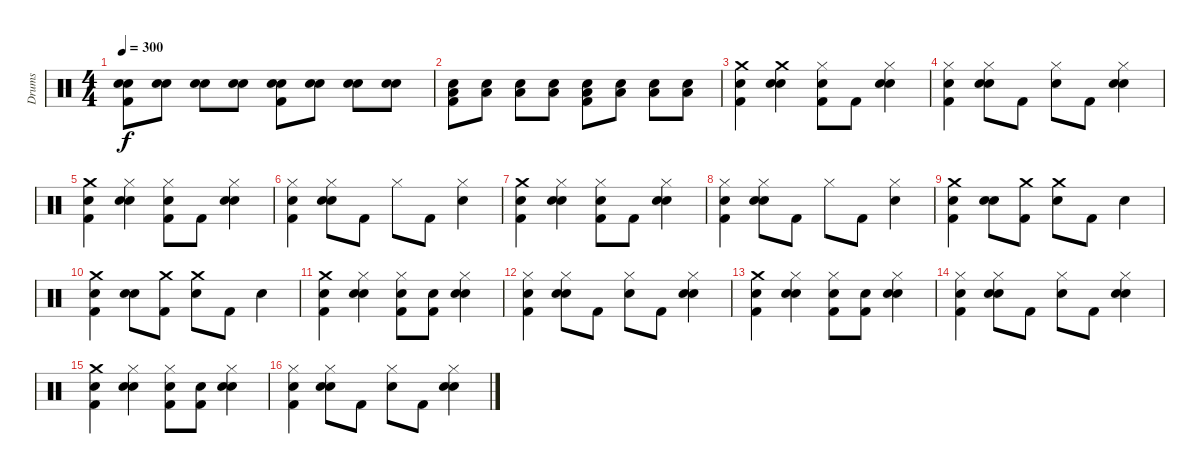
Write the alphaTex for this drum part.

\track ("Drums" "Drums") {instrument percussion}
\staff {score}
\articulation defaults
\ts (4 4)
\tempo 300
\clef neutral
\ks c
("Snare (hit)" "Kick (hit) 2" "Electric Snare (hit)").8{dy f} ("Snare (hit)" "Electric Snare (hit)").8 ("Snare (hit)" "Electric Snare (hit)").8 ("Snare (hit)" "Electric Snare (hit)").8 ("Snare (hit)" "Kick (hit) 2" "Electric Snare (hit)").8 ("Snare (hit)" "Electric Snare (hit)").8 ("Snare (hit)" "Electric Snare (hit)").8 ("Snare (hit)" "Electric Snare (hit)").8 |
("Snare (hit)" "Kick (hit) 2" "Low Floor Tom (hit)").8 ("Snare (hit)" "Low Floor Tom (hit)").8 ("Snare (hit)" "Low Floor Tom (hit)").8 ("Snare (hit)" "Low Floor Tom (hit)").8 ("Snare (hit)" "Kick (hit) 2" "Low Floor Tom (hit)").8 ("Snare (hit)" "Low Floor Tom (hit)").8 ("Snare (hit)" "Low Floor Tom (hit)").8 ("Snare (hit)" "Low Floor Tom (hit)").8 |
("Snare (hit)" "Kick (hit) 2" "Crash medium (hit)").4 ("Snare (hit)" "Crash medium (hit)" "Electric Snare (hit)").4 ("Snare (hit)" "Kick (hit) 2" "Hi-Hat (closed)").8 "Kick (hit) 2".8 ("Snare (hit)" "Hi-Hat (closed)" "Electric Snare (hit)").4 |
("Snare (hit)" "Kick (hit) 2" "Hi-Hat (closed)").4 ("Snare (hit)" "Hi-Hat (closed)" "Electric Snare (hit)").8 "Kick (hit) 2".8 ("Snare (hit)" "Hi-Hat (closed)").8 "Kick (hit) 2".8 ("Snare (hit)" "Hi-Hat (closed)" "Electric Snare (hit)").4 |
("Snare (hit)" "Crash medium (hit)" "Kick (hit) 2").4 ("Snare (hit)" "Hi-Hat (closed)" "Electric Snare (hit)").4 ("Snare (hit)" "Hi-Hat (closed)" "Kick (hit) 2").8 "Kick (hit) 2".8 ("Snare (hit)" "Hi-Hat (closed)" "Electric Snare (hit)").4 |
("Snare (hit)" "Hi-Hat (closed)" "Kick (hit) 2").4 ("Snare (hit)" "Hi-Hat (closed)" "Electric Snare (hit)").8 "Kick (hit) 2".8 "Hi-Hat (closed)".8 "Kick (hit) 2".8 ("Hi-Hat (closed)" "Electric Snare (hit)").4 |
("Snare (hit)" "Crash medium (hit)" "Kick (hit) 2").4 ("Snare (hit)" "Hi-Hat (closed)" "Electric Snare (hit)").4 ("Snare (hit)" "Hi-Hat (closed)" "Kick (hit) 2").8 "Kick (hit) 2".8 ("Snare (hit)" "Hi-Hat (closed)" "Electric Snare (hit)").4 |
("Snare (hit)" "Hi-Hat (closed)" "Kick (hit) 2").4 ("Snare (hit)" "Hi-Hat (closed)" "Electric Snare (hit)").8 "Kick (hit) 2".8 "Hi-Hat (closed)".8 "Kick (hit) 2".8 ("Hi-Hat (closed)" "Electric Snare (hit)").4 |
("Snare (hit)" "Crash medium (hit)" "Kick (hit) 2").4 ("Snare (hit)" "Electric Snare (hit)").8 ("Crash medium (hit)" "Kick (hit) 2").8 ("Snare (hit)" "Crash medium (hit)").8 "Kick (hit) 2".8 "Electric Snare (hit)".4 |
("Snare (hit)" "Crash medium (hit)" "Kick (hit) 2").4 ("Snare (hit)" "Electric Snare (hit)").8 ("Crash medium (hit)" "Kick (hit) 2").8 ("Snare (hit)" "Crash medium (hit)").8 "Kick (hit) 2".8 "Electric Snare (hit)".4 |
("Snare (hit)" "Crash medium (hit)" "Kick (hit) 2").4 ("Snare (hit)" "Hi-Hat (closed)" "Electric Snare (hit)").4 ("Snare (hit)" "Hi-Hat (closed)" "Kick (hit) 2").8 ("Snare (hit)" "Kick (hit) 2").8 ("Snare (hit)" "Hi-Hat (closed)" "Electric Snare (hit)").4 |
("Snare (hit)" "Hi-Hat (closed)" "Kick (hit) 2").4 ("Snare (hit)" "Hi-Hat (closed)" "Electric Snare (hit)").8 "Kick (hit) 2".8 ("Snare (hit)" "Hi-Hat (closed)").8 "Kick (hit) 2".8 ("Snare (hit)" "Hi-Hat (closed)" "Electric Snare (hit)").4 |
("Snare (hit)" "Crash medium (hit)" "Kick (hit) 2").4 ("Snare (hit)" "Hi-Hat (closed)" "Electric Snare (hit)").4 ("Snare (hit)" "Hi-Hat (closed)" "Kick (hit) 2").8 ("Snare (hit)" "Kick (hit) 2").8 ("Snare (hit)" "Hi-Hat (closed)" "Electric Snare (hit)").4 |
("Snare (hit)" "Hi-Hat (closed)" "Kick (hit) 2").4 ("Snare (hit)" "Hi-Hat (closed)" "Electric Snare (hit)").8 "Kick (hit) 2".8 ("Snare (hit)" "Hi-Hat (closed)").8 "Kick (hit) 2".8 ("Snare (hit)" "Hi-Hat (closed)" "Electric Snare (hit)").4 |
("Snare (hit)" "Crash medium (hit)" "Kick (hit) 2").4 ("Snare (hit)" "Hi-Hat (closed)" "Electric Snare (hit)").4 ("Snare (hit)" "Hi-Hat (closed)" "Kick (hit) 2").8 ("Snare (hit)" "Kick (hit) 2").8 ("Snare (hit)" "Hi-Hat (closed)" "Electric Snare (hit)").4 |
("Snare (hit)" "Hi-Hat (closed)" "Kick (hit) 2").4 ("Snare (hit)" "Hi-Hat (closed)" "Electric Snare (hit)").8 "Kick (hit) 2".8 ("Snare (hit)" "Hi-Hat (closed)").8 "Kick (hit) 2".8 ("Snare (hit)" "Hi-Hat (closed)" "Electric Snare (hit)").4
